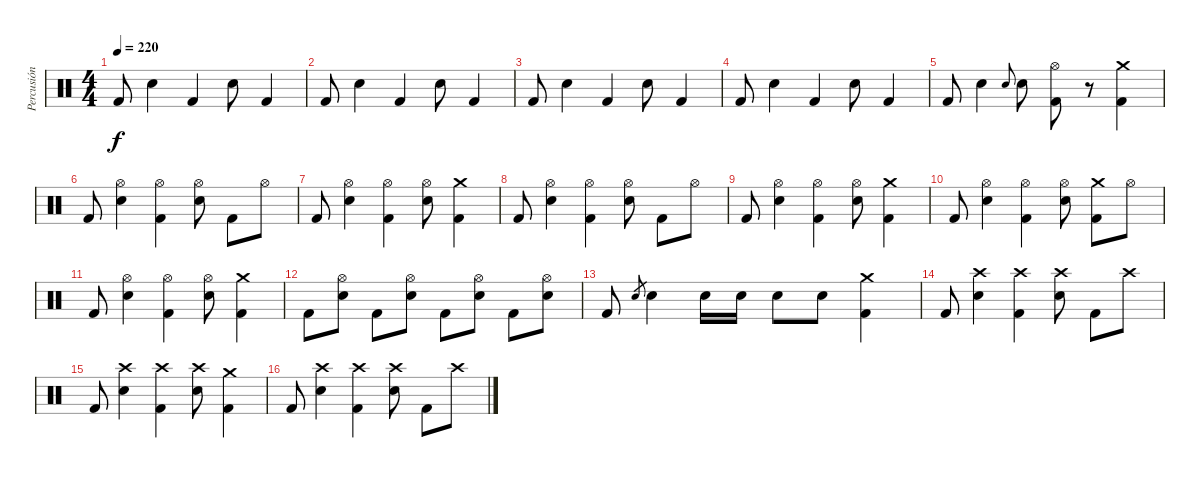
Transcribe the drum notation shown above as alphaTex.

\track ("Percusión" "Percusión") {instrument percussion}
\staff {score}
\articulation defaults
\ts (4 4)
\tempo 220
\clef neutral
\ks c "Kick (hit) 2".8{dy f} "Snare (hit) 2".4 "Kick (hit) 2".4 "Snare (hit) 2".8 "Kick (hit) 2".4
|
"Kick (hit) 2".8 "Snare (hit) 2".4 "Kick (hit) 2".4 "Snare (hit) 2".8 "Kick (hit) 2".4 |
"Kick (hit) 2".8 "Snare (hit) 2".4 "Kick (hit) 2".4 "Snare (hit) 2".8 "Kick (hit) 2".4 |
"Kick (hit) 2".8 "Snare (hit) 2".4 "Kick (hit) 2".4 "Snare (hit) 2".8 "Kick (hit) 2".4 |
"Kick (hit) 2".8 "Snare (hit) 2".4 "Snare (hit) 2".8{gr onbeat} "Snare (hit) 2".8 ("Hi-Hat (open)" "Kick (hit) 2").8 r.8 ("Crash medium (hit)" "Kick (hit) 2").4 |
"Kick (hit) 2".8 ("Hi-Hat (open)" "Snare (hit) 2").4 ("Hi-Hat (open)" "Kick (hit) 2").4 ("Hi-Hat (open)" "Snare (hit) 2").8 "Kick (hit) 2".8 "Hi-Hat (open)".8 |
"Kick (hit) 2".8 ("Hi-Hat (open)" "Snare (hit) 2").4 ("Hi-Hat (open)" "Kick (hit) 2").4 ("Hi-Hat (open)" "Snare (hit) 2").8 ("Crash medium (hit)" "Kick (hit) 2").4 |
"Kick (hit) 2".8 ("Hi-Hat (open)" "Snare (hit) 2").4 ("Hi-Hat (open)" "Kick (hit) 2").4 ("Hi-Hat (open)" "Snare (hit) 2").8 "Kick (hit) 2".8 "Hi-Hat (open)".8 |
"Kick (hit) 2".8 ("Hi-Hat (open)" "Snare (hit) 2").4 ("Hi-Hat (open)" "Kick (hit) 2").4 ("Hi-Hat (open)" "Snare (hit) 2").8 ("Crash medium (hit)" "Kick (hit) 2").4 |
"Kick (hit) 2".8 ("Hi-Hat (open)" "Snare (hit) 2").4 ("Hi-Hat (open)" "Kick (hit) 2").4 ("Hi-Hat (open)" "Snare (hit) 2").8 ("Crash medium (hit)" "Kick (hit) 2").8 "Hi-Hat (open)".8 |
"Kick (hit) 2".8 ("Hi-Hat (open)" "Snare (hit) 2").4 ("Hi-Hat (open)" "Kick (hit) 2").4 ("Hi-Hat (open)" "Snare (hit) 2").8 ("Crash medium (hit)" "Kick (hit) 2").4 |
"Kick (hit) 2".8 ("Hi-Hat (open)" "Snare (hit) 2").8 "Kick (hit) 2".8 ("Hi-Hat (open)" "Snare (hit) 2").8 "Kick (hit) 2".8 ("Hi-Hat (open)" "Snare (hit) 2").8 "Kick (hit) 2".8 ("Hi-Hat (open)" "Snare (hit) 2").8 |
"Kick (hit) 2".8 "Snare (hit) 2".8{gr} "Snare (hit) 2".4 "Snare (hit) 2".16 "Snare (hit) 2".16 "Snare (hit) 2".8 "Snare (hit) 2".8 ("Crash medium (hit)" "Kick (hit) 2").4 |
"Kick (hit) 2".8 ("Crash high (hit)" "Snare (hit) 2").4 ("Crash high (hit)" "Kick (hit) 2").4 ("Crash high (hit)" "Snare (hit) 2").8 "Kick (hit) 2".8 "Crash high (hit)".8 |
"Kick (hit) 2".8 ("Crash high (hit)" "Snare (hit) 2").4 ("Crash high (hit)" "Kick (hit) 2").4 ("Crash high (hit)" "Snare (hit) 2").8 ("Crash medium (hit)" "Kick (hit) 2").4 |
"Kick (hit) 2".8 ("Crash high (hit)" "Snare (hit) 2").4 ("Crash high (hit)" "Kick (hit) 2").4 ("Crash high (hit)" "Snare (hit) 2").8 "Kick (hit) 2".8 "Crash high (hit)".8
